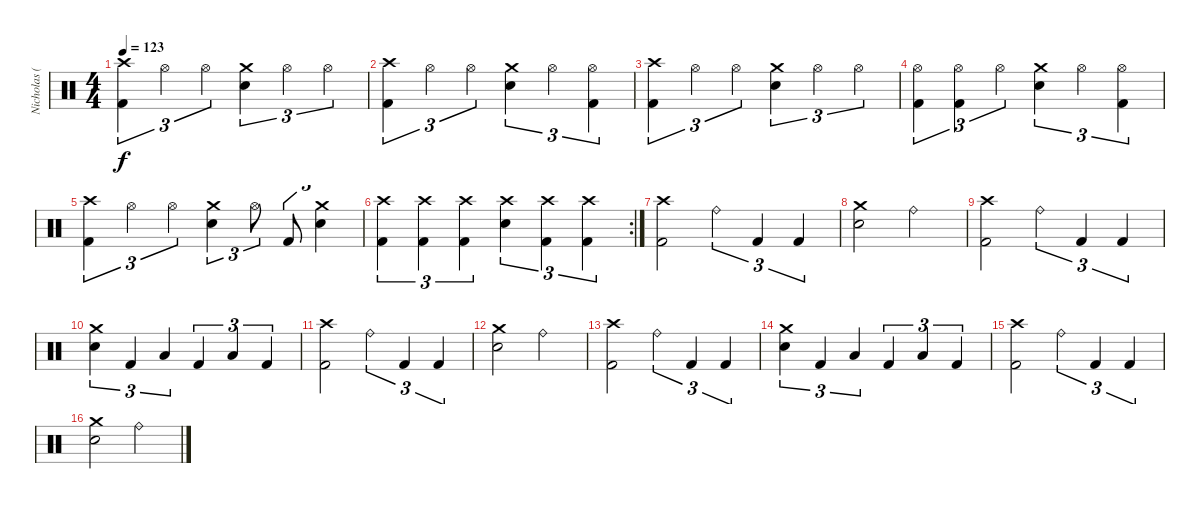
\track ("Nicholas (Drums)" "Nicholas (") {instrument percussion}
\staff {score}
\articulation defaults
\ts (4 4)
\tempo 123
\clef neutral
\ks c
("Crash high (hit)" "Kick (hit) 2").4{tu (3 2) dy f} "Hi-Hat (open)".4{tu (3 2)} "Hi-Hat (open)".4{tu (3 2)} ("Crash medium (hit)" "Electric Snare (hit)").4{tu (3 2)} "Hi-Hat (open)".4{tu (3 2)} "Hi-Hat (open)".4{tu (3 2)} |
("Crash high (hit)" "Kick (hit) 2").4{tu (3 2)} "Hi-Hat (open)".4{tu (3 2)} "Hi-Hat (open)".4{tu (3 2)} ("Crash medium (hit)" "Electric Snare (hit)").4{tu (3 2)} "Hi-Hat (open)".4{tu (3 2)} ("Hi-Hat (open)" "Kick (hit) 2").4{tu (3 2)} |
("Crash high (hit)" "Kick (hit) 2").4{tu (3 2)} "Hi-Hat (open)".4{tu (3 2)} "Hi-Hat (open)".4{tu (3 2)} ("Crash medium (hit)" "Electric Snare (hit)").4{tu (3 2)} "Hi-Hat (open)".4{tu (3 2)} "Hi-Hat (open)".4{tu (3 2)} |
("Hi-Hat (open)" "Kick (hit) 2").4{tu (3 2)} ("Hi-Hat (open)" "Kick (hit) 2").4{tu (3 2)} "Hi-Hat (open)".4{tu (3 2)} ("Crash medium (hit)" "Electric Snare (hit)").4{tu (3 2)} "Hi-Hat (open)".4{tu (3 2)} ("Hi-Hat (open)" "Kick (hit) 2").4{tu (3 2)} |
("Crash high (hit)" "Kick (hit) 2").4{tu (3 2)} "Hi-Hat (open)".4{tu (3 2)} "Hi-Hat (open)".4{tu (3 2)} ("Crash medium (hit)" "Electric Snare (hit)").4{tu (3 2)} "Hi-Hat (open)".8{tu (3 2)} "Kick (hit) 2".8{tu (3 2)} ("Crash medium (hit)" "Electric Snare (hit)").4{tu (3 2)} |
\rc 2
("Crash high (hit)" "Kick (hit) 2").4{tu (3 2)} ("Crash high (hit)" "Kick (hit) 2").4{tu (3 2)} ("Crash high (hit)" "Kick (hit) 2").4{tu (3 2)} ("Crash high (hit)" "Electric Snare (hit)").4{tu (3 2)} ("Crash high (hit)" "Kick (hit) 2").4{tu (3 2)} ("Crash high (hit)" "Kick (hit) 2").4{tu (3 2)} |
("Crash high (hit)" "Kick (hit) 2").2 "Ride (bell)".4{tu (3 2)} "Kick (hit) 2".4{tu (3 2)} "Kick (hit) 2".4{tu (3 2)} |
("Crash medium (hit)" "Electric Snare (hit)").2 "Ride (bell)".2 |
("Crash high (hit)" "Kick (hit) 2").2 "Ride (bell)".4{tu (3 2)} "Kick (hit) 2".4{tu (3 2)} "Kick (hit) 2".4{tu (3 2)} |
("Crash medium (hit)" "Electric Snare (hit)").4{tu (3 2)} "Kick (hit) 2".4{tu (3 2)} "Low Tom (hit)".4{tu (3 2)} "Kick (hit) 2".4{tu (3 2)} "Low Tom (hit)".4{tu (3 2)} "Kick (hit) 2".4{tu (3 2)} |
("Crash high (hit)" "Kick (hit) 2").2 "Ride (bell)".4{tu (3 2)} "Kick (hit) 2".4{tu (3 2)} "Kick (hit) 2".4{tu (3 2)} |
("Crash medium (hit)" "Electric Snare (hit)").2 "Ride (bell)".2 |
("Crash high (hit)" "Kick (hit) 2").2 "Ride (bell)".4{tu (3 2)} "Kick (hit) 2".4{tu (3 2)} "Kick (hit) 2".4{tu (3 2)} |
("Crash medium (hit)" "Electric Snare (hit)").4{tu (3 2)} "Kick (hit) 2".4{tu (3 2)} "Low Tom (hit)".4{tu (3 2)} "Kick (hit) 2".4{tu (3 2)} "Low Tom (hit)".4{tu (3 2)} "Kick (hit) 2".4{tu (3 2)} |
("Crash high (hit)" "Kick (hit) 2").2 "Ride (bell)".4{tu (3 2)} "Kick (hit) 2".4{tu (3 2)} "Kick (hit) 2".4{tu (3 2)} |
("Crash medium (hit)" "Electric Snare (hit)").2 "Ride (bell)".2
